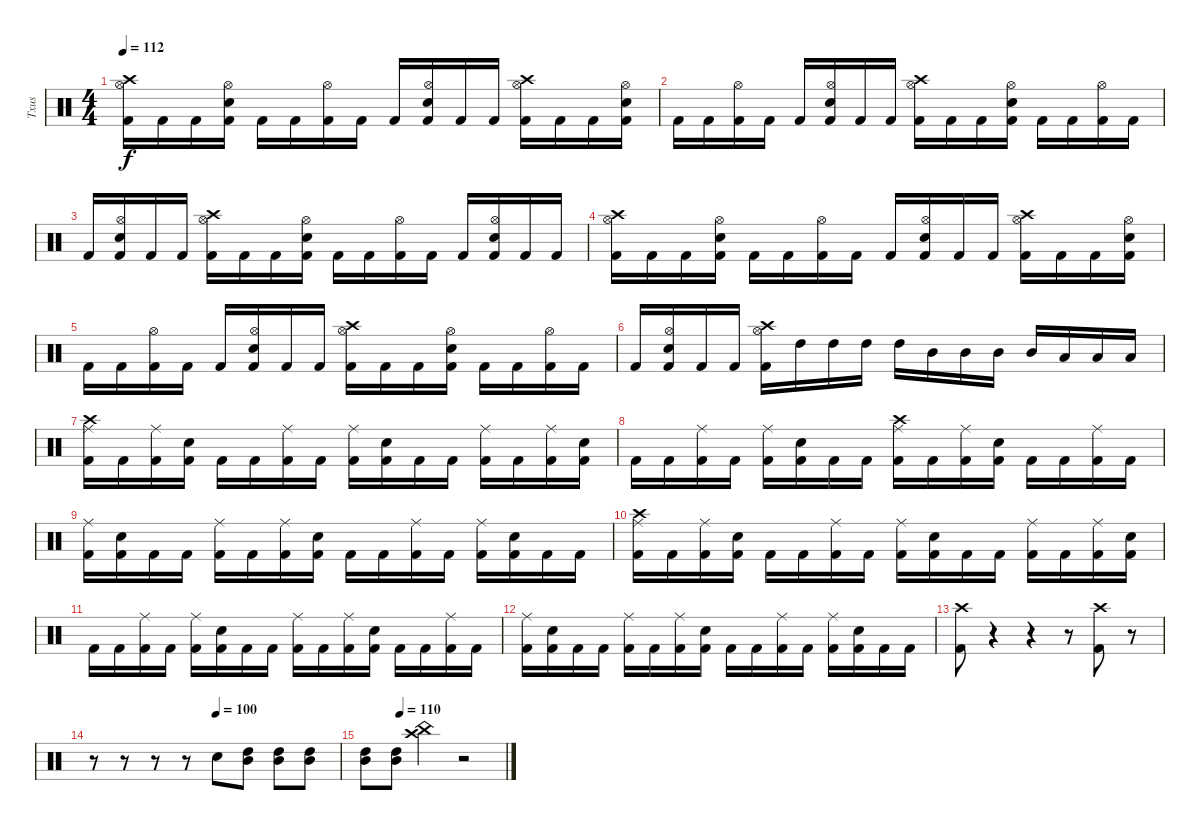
\track ("Txus" "Txus") {instrument percussion}
\staff {score}
\articulation defaults
\ts (4 4)
\tempo 112
\clef neutral
\ks c
("Kick (hit) 2" "Hi-Hat (open)" "Crash high (hit)").16{dy f} "Kick (hit) 2".16 "Kick (hit) 2".16 ("Kick (hit) 2" "Hi-Hat (open)" "Electric Snare (hit)").16 "Kick (hit) 2".16 "Kick (hit) 2".16 ("Kick (hit) 2" "Hi-Hat (open)").16 "Kick (hit) 2".16 "Kick (hit) 2".16 ("Kick (hit) 2" "Hi-Hat (open)" "Electric Snare (hit)").16 "Kick (hit) 2".16 "Kick (hit) 2".16 ("Kick (hit) 2" "Hi-Hat (open)" "Crash high (hit)").16 "Kick (hit) 2".16 "Kick (hit) 2".16 ("Kick (hit) 2" "Hi-Hat (open)" "Electric Snare (hit)").16 |
"Kick (hit) 2".16 "Kick (hit) 2".16 ("Kick (hit) 2" "Hi-Hat (open)").16 "Kick (hit) 2".16 "Kick (hit) 2".16 ("Kick (hit) 2" "Hi-Hat (open)" "Electric Snare (hit)").16 "Kick (hit) 2".16 "Kick (hit) 2".16 ("Kick (hit) 2" "Hi-Hat (open)" "Crash high (hit)").16 "Kick (hit) 2".16 "Kick (hit) 2".16 ("Kick (hit) 2" "Hi-Hat (open)" "Electric Snare (hit)").16 "Kick (hit) 2".16 "Kick (hit) 2".16 ("Kick (hit) 2" "Hi-Hat (open)").16 "Kick (hit) 2".16 |
"Kick (hit) 2".16 ("Kick (hit) 2" "Hi-Hat (open)" "Electric Snare (hit)").16 "Kick (hit) 2".16 "Kick (hit) 2".16 ("Kick (hit) 2" "Hi-Hat (open)" "Crash high (hit)").16 "Kick (hit) 2".16 "Kick (hit) 2".16 ("Kick (hit) 2" "Hi-Hat (open)" "Electric Snare (hit)").16 "Kick (hit) 2".16 "Kick (hit) 2".16 ("Kick (hit) 2" "Hi-Hat (open)").16 "Kick (hit) 2".16 "Kick (hit) 2".16 ("Kick (hit) 2" "Hi-Hat (open)" "Electric Snare (hit)").16 "Kick (hit) 2".16 "Kick (hit) 2".16 |
("Kick (hit) 2" "Hi-Hat (open)" "Crash high (hit)").16 "Kick (hit) 2".16 "Kick (hit) 2".16 ("Kick (hit) 2" "Hi-Hat (open)" "Electric Snare (hit)").16 "Kick (hit) 2".16 "Kick (hit) 2".16 ("Kick (hit) 2" "Hi-Hat (open)").16 "Kick (hit) 2".16 "Kick (hit) 2".16 ("Kick (hit) 2" "Hi-Hat (open)" "Electric Snare (hit)").16 "Kick (hit) 2".16 "Kick (hit) 2".16 ("Kick (hit) 2" "Hi-Hat (open)" "Crash high (hit)").16 "Kick (hit) 2".16 "Kick (hit) 2".16 ("Kick (hit) 2" "Hi-Hat (open)" "Electric Snare (hit)").16 |
"Kick (hit) 2".16 "Kick (hit) 2".16 ("Kick (hit) 2" "Hi-Hat (open)").16 "Kick (hit) 2".16 "Kick (hit) 2".16 ("Kick (hit) 2" "Hi-Hat (open)" "Electric Snare (hit)").16 "Kick (hit) 2".16 "Kick (hit) 2".16 ("Kick (hit) 2" "Hi-Hat (open)" "Crash high (hit)").16 "Kick (hit) 2".16 "Kick (hit) 2".16 ("Kick (hit) 2" "Hi-Hat (open)" "Electric Snare (hit)").16 "Kick (hit) 2".16 "Kick (hit) 2".16 ("Kick (hit) 2" "Hi-Hat (open)").16 "Kick (hit) 2".16 |
"Kick (hit) 2".16 ("Kick (hit) 2" "Hi-Hat (open)" "Electric Snare (hit)").16 "Kick (hit) 2".16 "Kick (hit) 2".16 ("Kick (hit) 2" "Hi-Hat (open)" "Crash high (hit)").16 "High Tom (hit)".16 "High Tom (hit)".16 "High Tom (hit)".16 "High Tom (hit)".16 "Mid Tom (hit)".16 "Mid Tom (hit)".16 "Mid Tom (hit)".16 "Mid Tom (hit)".16 "Low Tom (hit)".16 "Low Tom (hit)".16 "Low Tom (hit)".16 |
("Kick (hit) 2" "Ride (middle)" "Crash high (hit)").16 "Kick (hit) 2".16 ("Kick (hit) 2" "Ride (middle)").16 ("Kick (hit) 2" "Electric Snare (hit)").16 "Kick (hit) 2".16 "Kick (hit) 2".16 ("Kick (hit) 2" "Ride (middle)").16 "Kick (hit) 2".16 ("Kick (hit) 2" "Ride (middle)").16 ("Kick (hit) 2" "Electric Snare (hit)").16 "Kick (hit) 2".16 "Kick (hit) 2".16 ("Kick (hit) 2" "Ride (middle)").16 "Kick (hit) 2".16 ("Kick (hit) 2" "Ride (middle)").16 ("Kick (hit) 2" "Electric Snare (hit)").16 |
"Kick (hit) 2".16 "Kick (hit) 2".16 ("Kick (hit) 2" "Ride (middle)").16 "Kick (hit) 2".16 ("Kick (hit) 2" "Ride (middle)").16 ("Kick (hit) 2" "Electric Snare (hit)").16 "Kick (hit) 2".16 "Kick (hit) 2".16 ("Kick (hit) 2" "Ride (middle)" "Crash high (hit)").16 "Kick (hit) 2".16 ("Kick (hit) 2" "Ride (middle)").16 ("Kick (hit) 2" "Electric Snare (hit)").16 "Kick (hit) 2".16 "Kick (hit) 2".16 ("Kick (hit) 2" "Ride (middle)").16 "Kick (hit) 2".16 |
("Kick (hit) 2" "Ride (middle)").16 ("Kick (hit) 2" "Electric Snare (hit)").16 "Kick (hit) 2".16 "Kick (hit) 2".16 ("Kick (hit) 2" "Ride (middle)").16 "Kick (hit) 2".16 ("Kick (hit) 2" "Ride (middle)").16 ("Kick (hit) 2" "Electric Snare (hit)").16 "Kick (hit) 2".16 "Kick (hit) 2".16 ("Kick (hit) 2" "Ride (middle)").16 "Kick (hit) 2".16 ("Kick (hit) 2" "Ride (middle)").16 ("Kick (hit) 2" "Electric Snare (hit)").16 "Kick (hit) 2".16 "Kick (hit) 2".16 |
("Kick (hit) 2" "Ride (middle)" "Crash high (hit)").16 "Kick (hit) 2".16 ("Kick (hit) 2" "Ride (middle)").16 ("Kick (hit) 2" "Electric Snare (hit)").16 "Kick (hit) 2".16 "Kick (hit) 2".16 ("Kick (hit) 2" "Ride (middle)").16 "Kick (hit) 2".16 ("Kick (hit) 2" "Ride (middle)").16 ("Kick (hit) 2" "Electric Snare (hit)").16 "Kick (hit) 2".16 "Kick (hit) 2".16 ("Kick (hit) 2" "Ride (middle)").16 "Kick (hit) 2".16 ("Kick (hit) 2" "Ride (middle)").16 ("Kick (hit) 2" "Electric Snare (hit)").16 |
"Kick (hit) 2".16 "Kick (hit) 2".16 ("Kick (hit) 2" "Ride (middle)").16 "Kick (hit) 2".16 ("Kick (hit) 2" "Ride (middle)").16 ("Kick (hit) 2" "Electric Snare (hit)").16 "Kick (hit) 2".16 "Kick (hit) 2".16 ("Kick (hit) 2" "Ride (middle)").16 "Kick (hit) 2".16 ("Kick (hit) 2" "Ride (middle)").16 ("Kick (hit) 2" "Electric Snare (hit)").16 "Kick (hit) 2".16 "Kick (hit) 2".16 ("Kick (hit) 2" "Ride (middle)").16 "Kick (hit) 2".16 |
("Kick (hit) 2" "Ride (middle)").16 ("Kick (hit) 2" "Electric Snare (hit)").16 "Kick (hit) 2".16 "Kick (hit) 2".16 ("Kick (hit) 2" "Ride (middle)").16 "Kick (hit) 2".16 ("Kick (hit) 2" "Ride (middle)").16 ("Kick (hit) 2" "Electric Snare (hit)").16 "Kick (hit) 2".16 "Kick (hit) 2".16 ("Kick (hit) 2" "Ride (middle)").16 "Kick (hit) 2".16 ("Kick (hit) 2" "Ride (middle)").16 ("Kick (hit) 2" "Electric Snare (hit)").16 "Kick (hit) 2".16 "Kick (hit) 2".16 |
("Kick (hit) 2" "Crash high (hit)").8 r.4 r.4 r.8 ("Kick (hit) 2" "Crash high (hit)").8 r.8 |
\tempo (100 0.5)
r.8 r.8 r.8 r.8 "Electric Snare (hit)".8 ("High Tom (hit)" "Mid Tom (hit)").8 ("High Tom (hit)" "Mid Tom (hit)").8 ("High Tom (hit)" "Mid Tom (hit)").8 |
\tempo (110 0.25)
("High Tom (hit)" "Mid Tom (hit)").8 ("High Tom (hit)" "Mid Tom (hit)").8 ("Crash high (hit)" "China (hit)").4 r.2
